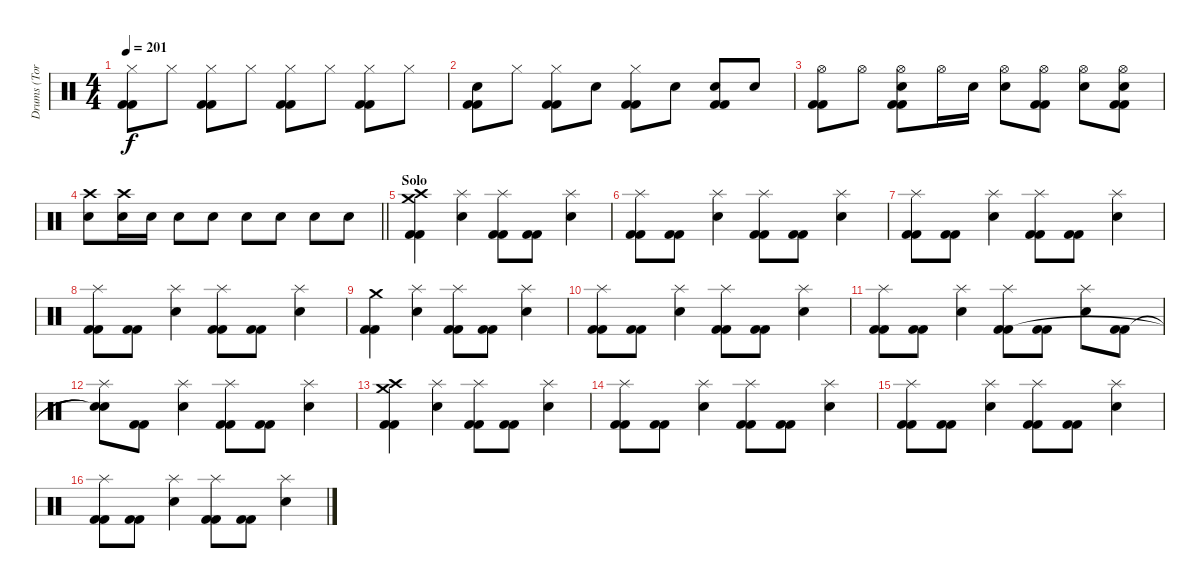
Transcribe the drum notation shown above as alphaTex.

\track ("Drums (Tora)" "Drums (Tor") {instrument percussion}
\staff {score}
\articulation defaults
\ts (4 4)
\tempo 201
\clef neutral
\ks c
("Hi-Hat (closed)" "Kick (hit) 2" "Kick (hit) 2").8{dy f} "Hi-Hat (closed)".8 ("Hi-Hat (closed)" "Kick (hit) 2" "Kick (hit) 2").8 "Hi-Hat (closed)".8 ("Hi-Hat (closed)" "Kick (hit) 2" "Kick (hit) 2").8 "Hi-Hat (closed)".8 ("Hi-Hat (closed)" "Kick (hit) 2" "Kick (hit) 2").8 "Hi-Hat (closed)".8 |
("Snare (hit) 2" "Kick (hit) 2" "Kick (hit) 2").8 "Hi-Hat (closed)".8 ("Hi-Hat (closed)" "Kick (hit) 2" "Kick (hit) 2").8 "Snare (hit) 2".8 ("Hi-Hat (closed)" "Kick (hit) 2" "Kick (hit) 2").8 "Snare (hit) 2".8 ("Snare (hit) 2" "Kick (hit) 2" "Kick (hit) 2").8 "Snare (hit) 2".8 |
("Hi-Hat (open)" "Kick (hit) 2" "Kick (hit) 2").8 "Hi-Hat (open)".8 ("Snare (hit) 2" "Hi-Hat (open)" "Kick (hit) 2" "Kick (hit) 2").8 "Hi-Hat (open)".16 "Snare (hit) 2".16 ("Hi-Hat (open)" "Snare (hit) 2").8 ("Hi-Hat (open)" "Kick (hit) 2" "Kick (hit) 2").8 ("Hi-Hat (open)" "Snare (hit) 2").8 ("Snare (hit) 2" "Kick (hit) 2" "Kick (hit) 2" "Hi-Hat (open)").8 |
\barLineRight lightlight
("Crash high (hit)" "Snare (hit) 2").8 ("Crash high (hit)" "Snare (hit) 2").16 "Snare (hit) 2".16 "Snare (hit) 2".8 "Snare (hit) 2".8 "Snare (hit) 2".8 "Snare (hit) 2".8 "Snare (hit) 2".8 "Snare (hit) 2".8 |
\section ("" "Solo")
("Crash high (hit)" "Crash medium (hit)" "Kick (hit) 2" "Kick (hit) 2").4 ("Splash (hit)" "Snare (hit) 2").4 ("Splash (hit)" "Kick (hit) 2" "Kick (hit) 2").8 ("Kick (hit) 2" "Kick (hit) 2").8 ("Splash (hit)" "Snare (hit) 2").4 |
("Splash (hit)" "Kick (hit) 2" "Kick (hit) 2").8 ("Kick (hit) 2" "Kick (hit) 2").8 ("Splash (hit)" "Snare (hit) 2").4 ("Splash (hit)" "Kick (hit) 2" "Kick (hit) 2").8 ("Kick (hit) 2" "Kick (hit) 2").8 ("Splash (hit)" "Snare (hit) 2").4 |
("Splash (hit)" "Kick (hit) 2" "Kick (hit) 2").8 ("Kick (hit) 2" "Kick (hit) 2").8 ("Splash (hit)" "Snare (hit) 2").4 ("Splash (hit)" "Kick (hit) 2" "Kick (hit) 2").8 ("Kick (hit) 2" "Kick (hit) 2").8 ("Splash (hit)" "Snare (hit) 2").4 |
("Splash (hit)" "Kick (hit) 2" "Kick (hit) 2").8 ("Kick (hit) 2" "Kick (hit) 2").8 ("Splash (hit)" "Snare (hit) 2").4 ("Splash (hit)" "Kick (hit) 2" "Kick (hit) 2").8 ("Kick (hit) 2" "Kick (hit) 2").8 ("Splash (hit)" "Snare (hit) 2").4 |
("Crash medium (hit)" "Kick (hit) 2" "Kick (hit) 2").4 ("Splash (hit)" "Snare (hit) 2").4 ("Splash (hit)" "Kick (hit) 2" "Kick (hit) 2").8 ("Kick (hit) 2" "Kick (hit) 2").8 ("Splash (hit)" "Snare (hit) 2").4 |
("Splash (hit)" "Kick (hit) 2" "Kick (hit) 2").8 ("Kick (hit) 2" "Kick (hit) 2").8 ("Splash (hit)" "Snare (hit) 2").4 ("Splash (hit)" "Kick (hit) 2" "Kick (hit) 2").8 ("Kick (hit) 2" "Kick (hit) 2").8 ("Splash (hit)" "Snare (hit) 2").4 |
("Splash (hit)" "Kick (hit) 2" "Kick (hit) 2").8 ("Kick (hit) 2" "Kick (hit) 2").8 ("Splash (hit)" "Snare (hit) 2").4 ("Splash (hit)" "Kick (hit) 2" "Kick (hit) 2").8 ("Kick (hit) 2" "Kick (hit) 2").8 ("Splash (hit)" "Snare (hit) 2").8 ("Kick (hit) 2" "Kick (hit) 2").8 |
("Splash (hit)" "Snare (hit)"{t} "Snare (hit)"{t}).8 ("Kick (hit) 2" "Kick (hit) 2").8 ("Splash (hit)" "Snare (hit) 2").4 ("Splash (hit)" "Kick (hit) 2" "Kick (hit) 2").8 ("Kick (hit) 2" "Kick (hit) 2").8 ("Splash (hit)" "Snare (hit) 2").4 |
("Crash high (hit)" "Crash medium (hit)" "Kick (hit) 2" "Kick (hit) 2").4 ("Splash (hit)" "Snare (hit) 2").4 ("Splash (hit)" "Kick (hit) 2" "Kick (hit) 2").8 ("Kick (hit) 2" "Kick (hit) 2").8 ("Splash (hit)" "Snare (hit) 2").4 |
("Splash (hit)" "Kick (hit) 2" "Kick (hit) 2").8 ("Kick (hit) 2" "Kick (hit) 2").8 ("Splash (hit)" "Snare (hit) 2").4 ("Splash (hit)" "Kick (hit) 2" "Kick (hit) 2").8 ("Kick (hit) 2" "Kick (hit) 2").8 ("Splash (hit)" "Snare (hit) 2").4 |
("Splash (hit)" "Kick (hit) 2" "Kick (hit) 2").8 ("Kick (hit) 2" "Kick (hit) 2").8 ("Splash (hit)" "Snare (hit) 2").4 ("Splash (hit)" "Kick (hit) 2" "Kick (hit) 2").8 ("Kick (hit) 2" "Kick (hit) 2").8 ("Splash (hit)" "Snare (hit) 2").4 |
("Splash (hit)" "Kick (hit) 2" "Kick (hit) 2").8 ("Kick (hit) 2" "Kick (hit) 2").8 ("Splash (hit)" "Snare (hit) 2").4 ("Splash (hit)" "Kick (hit) 2" "Kick (hit) 2").8 ("Kick (hit) 2" "Kick (hit) 2").8 ("Splash (hit)" "Snare (hit) 2").4
